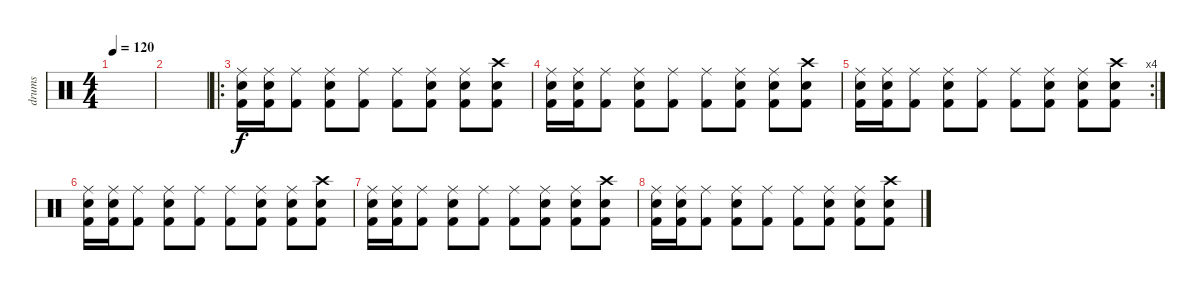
\track ("drums" "drums") {instrument percussion}
\staff {score}
\articulation defaults
\ts (4 4)
\tempo 120
\clef neutral
\ks c
|
|
\ro
("Ride (middle)" "Snare (hit) 2" "Kick (hit) 2").16 ("Ride (middle)" "Snare (hit) 2" "Kick (hit) 2").16 ("Ride (middle)" "Kick (hit) 2").8 ("Ride (middle)" "Snare (hit) 2" "Kick (hit) 2").8 ("Ride (middle)" "Kick (hit) 2").8 ("Ride (middle)" "Kick (hit) 2").8 ("Ride (middle)" "Snare (hit) 2" "Kick (hit) 2").8 ("Ride (middle)" "Snare (hit) 2" "Kick (hit) 2").8 ("Crash high (hit)" "Snare (hit) 2" "Kick (hit) 2").8 |
("Ride (middle)" "Snare (hit) 2" "Kick (hit) 2").16 ("Ride (middle)" "Snare (hit) 2" "Kick (hit) 2").16 ("Ride (middle)" "Kick (hit) 2").8 ("Ride (middle)" "Snare (hit) 2" "Kick (hit) 2").8 ("Ride (middle)" "Kick (hit) 2").8 ("Ride (middle)" "Kick (hit) 2").8 ("Ride (middle)" "Snare (hit) 2" "Kick (hit) 2").8 ("Ride (middle)" "Snare (hit) 2" "Kick (hit) 2").8 ("Crash high (hit)" "Snare (hit) 2" "Kick (hit) 2").8 |
\rc 4
("Ride (middle)" "Snare (hit) 2" "Kick (hit) 2").16 ("Ride (middle)" "Snare (hit) 2" "Kick (hit) 2").16 ("Ride (middle)" "Kick (hit) 2").8 ("Ride (middle)" "Snare (hit) 2" "Kick (hit) 2").8 ("Ride (middle)" "Kick (hit) 2").8 ("Ride (middle)" "Kick (hit) 2").8 ("Ride (middle)" "Snare (hit) 2" "Kick (hit) 2").8 ("Ride (middle)" "Snare (hit) 2" "Kick (hit) 2").8 ("Crash high (hit)" "Snare (hit) 2" "Kick (hit) 2").8 |
("Ride (middle)" "Snare (hit) 2" "Kick (hit) 2").16 ("Ride (middle)" "Snare (hit) 2" "Kick (hit) 2").16 ("Ride (middle)" "Kick (hit) 2").8 ("Ride (middle)" "Snare (hit) 2" "Kick (hit) 2").8 ("Ride (middle)" "Kick (hit) 2").8 ("Ride (middle)" "Kick (hit) 2").8 ("Ride (middle)" "Snare (hit) 2" "Kick (hit) 2").8 ("Ride (middle)" "Snare (hit) 2" "Kick (hit) 2").8 ("Crash high (hit)" "Snare (hit) 2" "Kick (hit) 2").8 |
("Ride (middle)" "Snare (hit) 2" "Kick (hit) 2").16 ("Ride (middle)" "Snare (hit) 2" "Kick (hit) 2").16 ("Ride (middle)" "Kick (hit) 2").8 ("Ride (middle)" "Snare (hit) 2" "Kick (hit) 2").8 ("Ride (middle)" "Kick (hit) 2").8 ("Ride (middle)" "Kick (hit) 2").8 ("Ride (middle)" "Snare (hit) 2" "Kick (hit) 2").8 ("Ride (middle)" "Snare (hit) 2" "Kick (hit) 2").8 ("Crash high (hit)" "Snare (hit) 2" "Kick (hit) 2").8 |
("Ride (middle)" "Snare (hit) 2" "Kick (hit) 2").16 ("Ride (middle)" "Snare (hit) 2" "Kick (hit) 2").16 ("Ride (middle)" "Kick (hit) 2").8 ("Ride (middle)" "Snare (hit) 2" "Kick (hit) 2").8 ("Ride (middle)" "Kick (hit) 2").8 ("Ride (middle)" "Kick (hit) 2").8 ("Ride (middle)" "Snare (hit) 2" "Kick (hit) 2").8 ("Ride (middle)" "Snare (hit) 2" "Kick (hit) 2").8 ("Crash high (hit)" "Snare (hit) 2" "Kick (hit) 2").8
